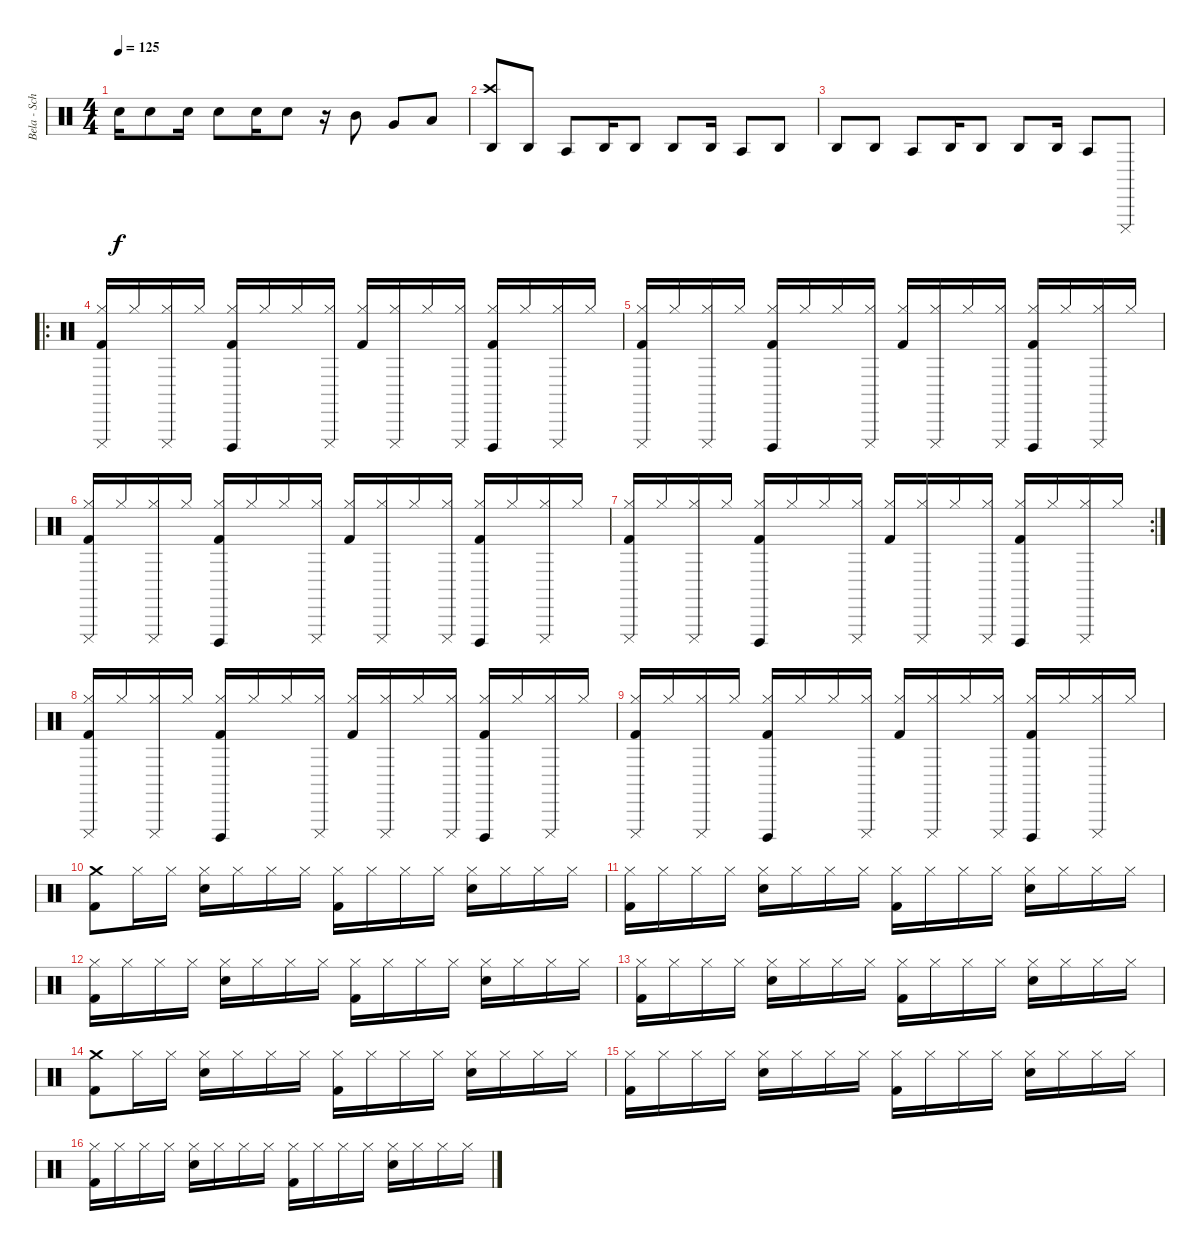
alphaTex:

\track ("Bela - Schlagzeug" "Bela - Sch") {instrument percussion}
\staff {score}
\articulation defaults
\ts (4 4)
\tempo 125
\clef neutral
\ks c "Electric Snare (hit)".16{dy f} "Electric Snare (hit)".8 "Electric Snare (hit)".16 "Electric Snare (hit)".8 "Electric Snare (hit)".16 "Electric Snare (hit)".8
r.16 "Mid Tom (hit)".8 "Very Low Tom (hit)".8 "Low Floor Tom (hit)".8 |
("Crash high (hit)" "Agogo high (hit)").8 "Agogo high (hit)".8 "Agogo tow (hit)".8 "Agogo high (hit)".16 "Agogo high (hit)".8 "Agogo high (hit)".8 "Agogo high (hit)".16 "Agogo tow (hit)".8 "Agogo high (hit)".8 |
"Agogo high (hit)".8 "Agogo high (hit)".8 "Agogo tow (hit)".8 "Agogo high (hit)".16 "Agogo high (hit)".8 "Agogo high (hit)".8 "Agogo high (hit)".16 "Agogo tow (hit)".8 "Cuica (mute)".8 |
\ro
("Hi-Hat (closed)" "Cuica (mute)" "Kick (hit) 2").16 "Hi-Hat (closed)".16 ("Hi-Hat (closed)" "Cuica (mute)").16 "Hi-Hat (closed)".16 ("Hi-Hat (closed)" "Cuica (open)" "Kick (hit) 2").16 "Hi-Hat (closed)".16 "Hi-Hat (closed)".16 ("Hi-Hat (closed)" "Cuica (mute)").16 ("Hi-Hat (closed)" "Kick (hit) 2").16 ("Hi-Hat (closed)" "Cuica (mute)").16 "Hi-Hat (closed)".16 ("Hi-Hat (closed)" "Cuica (mute)").16 ("Hi-Hat (closed)" "Cuica (open)" "Kick (hit) 2").16 "Hi-Hat (closed)".16 ("Hi-Hat (closed)" "Cuica (mute)").16 "Hi-Hat (closed)".16 |
("Hi-Hat (closed)" "Cuica (mute)" "Kick (hit) 2").16 "Hi-Hat (closed)".16 ("Hi-Hat (closed)" "Cuica (mute)").16 "Hi-Hat (closed)".16 ("Hi-Hat (closed)" "Cuica (open)" "Kick (hit) 2").16 "Hi-Hat (closed)".16 "Hi-Hat (closed)".16 ("Hi-Hat (closed)" "Cuica (mute)").16 ("Hi-Hat (closed)" "Kick (hit) 2").16 ("Hi-Hat (closed)" "Cuica (mute)").16 "Hi-Hat (closed)".16 ("Hi-Hat (closed)" "Cuica (mute)").16 ("Hi-Hat (closed)" "Cuica (open)" "Kick (hit) 2").16 "Hi-Hat (closed)".16 ("Hi-Hat (closed)" "Cuica (mute)").16 "Hi-Hat (closed)".16 |
("Hi-Hat (closed)" "Cuica (mute)" "Kick (hit) 2").16 "Hi-Hat (closed)".16 ("Hi-Hat (closed)" "Cuica (mute)").16 "Hi-Hat (closed)".16 ("Hi-Hat (closed)" "Cuica (open)" "Kick (hit) 2").16 "Hi-Hat (closed)".16 "Hi-Hat (closed)".16 ("Hi-Hat (closed)" "Cuica (mute)").16 ("Hi-Hat (closed)" "Kick (hit) 2").16 ("Hi-Hat (closed)" "Cuica (mute)").16 "Hi-Hat (closed)".16 ("Hi-Hat (closed)" "Cuica (mute)").16 ("Hi-Hat (closed)" "Cuica (open)" "Kick (hit) 2").16 "Hi-Hat (closed)".16 ("Hi-Hat (closed)" "Cuica (mute)").16 "Hi-Hat (closed)".16 |
\rc 2
("Hi-Hat (closed)" "Cuica (mute)" "Kick (hit) 2").16 "Hi-Hat (closed)".16 ("Hi-Hat (closed)" "Cuica (mute)").16 "Hi-Hat (closed)".16 ("Hi-Hat (closed)" "Cuica (open)" "Kick (hit) 2").16 "Hi-Hat (closed)".16 "Hi-Hat (closed)".16 ("Hi-Hat (closed)" "Cuica (mute)").16 ("Hi-Hat (closed)" "Kick (hit) 2").16 ("Hi-Hat (closed)" "Cuica (mute)").16 "Hi-Hat (closed)".16 ("Hi-Hat (closed)" "Cuica (mute)").16 ("Hi-Hat (closed)" "Cuica (open)" "Kick (hit) 2").16 "Hi-Hat (closed)".16 ("Hi-Hat (closed)" "Cuica (mute)").16 "Hi-Hat (closed)".16 |
("Hi-Hat (closed)" "Cuica (mute)" "Kick (hit) 2").16 "Hi-Hat (closed)".16 ("Hi-Hat (closed)" "Cuica (mute)").16 "Hi-Hat (closed)".16 ("Hi-Hat (closed)" "Cuica (open)" "Kick (hit) 2").16 "Hi-Hat (closed)".16 "Hi-Hat (closed)".16 ("Hi-Hat (closed)" "Cuica (mute)").16 ("Hi-Hat (closed)" "Kick (hit) 2").16 ("Hi-Hat (closed)" "Cuica (mute)").16 "Hi-Hat (closed)".16 ("Hi-Hat (closed)" "Cuica (mute)").16 ("Hi-Hat (closed)" "Cuica (open)" "Kick (hit) 2").16 "Hi-Hat (closed)".16 ("Hi-Hat (closed)" "Cuica (mute)").16 "Hi-Hat (closed)".16 |
("Hi-Hat (closed)" "Cuica (mute)" "Kick (hit) 2").16 "Hi-Hat (closed)".16 ("Hi-Hat (closed)" "Cuica (mute)").16 "Hi-Hat (closed)".16 ("Hi-Hat (closed)" "Cuica (open)" "Kick (hit) 2").16 "Hi-Hat (closed)".16 "Hi-Hat (closed)".16 ("Hi-Hat (closed)" "Cuica (mute)").16 ("Hi-Hat (closed)" "Kick (hit) 2").16 ("Hi-Hat (closed)" "Cuica (mute)").16 "Hi-Hat (closed)".16 ("Hi-Hat (closed)" "Cuica (mute)").16 ("Hi-Hat (closed)" "Cuica (open)" "Kick (hit) 2").16 "Hi-Hat (closed)".16 ("Hi-Hat (closed)" "Cuica (mute)").16 "Hi-Hat (closed)".16 |
("Crash medium (hit)" "Kick (hit) 2").8 "Hi-Hat (closed)".16 "Hi-Hat (closed)".16 ("Hi-Hat (closed)" "Electric Snare (hit)").16 "Hi-Hat (closed)".16 "Hi-Hat (closed)".16 "Hi-Hat (closed)".16 ("Hi-Hat (closed)" "Kick (hit) 2").16 "Hi-Hat (closed)".16 "Hi-Hat (closed)".16 "Hi-Hat (closed)".16 ("Hi-Hat (closed)" "Electric Snare (hit)").16 "Hi-Hat (closed)".16 "Hi-Hat (closed)".16 "Hi-Hat (closed)".16 |
("Hi-Hat (closed)" "Kick (hit) 2").16 "Hi-Hat (closed)".16 "Hi-Hat (closed)".16 "Hi-Hat (closed)".16 ("Hi-Hat (closed)" "Electric Snare (hit)").16 "Hi-Hat (closed)".16 "Hi-Hat (closed)".16 "Hi-Hat (closed)".16 ("Hi-Hat (closed)" "Kick (hit) 2").16 "Hi-Hat (closed)".16 "Hi-Hat (closed)".16 "Hi-Hat (closed)".16 ("Hi-Hat (closed)" "Electric Snare (hit)").16 "Hi-Hat (closed)".16 "Hi-Hat (closed)".16 "Hi-Hat (closed)".16 |
("Hi-Hat (closed)" "Kick (hit) 2").16 "Hi-Hat (closed)".16 "Hi-Hat (closed)".16 "Hi-Hat (closed)".16 ("Hi-Hat (closed)" "Electric Snare (hit)").16 "Hi-Hat (closed)".16 "Hi-Hat (closed)".16 "Hi-Hat (closed)".16 ("Hi-Hat (closed)" "Kick (hit) 2").16 "Hi-Hat (closed)".16 "Hi-Hat (closed)".16 "Hi-Hat (closed)".16 ("Hi-Hat (closed)" "Electric Snare (hit)").16 "Hi-Hat (closed)".16 "Hi-Hat (closed)".16 "Hi-Hat (closed)".16 |
("Hi-Hat (closed)" "Kick (hit) 2").16 "Hi-Hat (closed)".16 "Hi-Hat (closed)".16 "Hi-Hat (closed)".16 ("Hi-Hat (closed)" "Electric Snare (hit)").16 "Hi-Hat (closed)".16 "Hi-Hat (closed)".16 "Hi-Hat (closed)".16 ("Hi-Hat (closed)" "Kick (hit) 2").16 "Hi-Hat (closed)".16 "Hi-Hat (closed)".16 "Hi-Hat (closed)".16 ("Hi-Hat (closed)" "Electric Snare (hit)").16 "Hi-Hat (closed)".16 "Hi-Hat (closed)".16 "Hi-Hat (closed)".16 |
("Crash medium (hit)" "Kick (hit) 2").8 "Hi-Hat (closed)".16 "Hi-Hat (closed)".16 ("Hi-Hat (closed)" "Electric Snare (hit)").16 "Hi-Hat (closed)".16 "Hi-Hat (closed)".16 "Hi-Hat (closed)".16 ("Hi-Hat (closed)" "Kick (hit) 2").16 "Hi-Hat (closed)".16 "Hi-Hat (closed)".16 "Hi-Hat (closed)".16 ("Hi-Hat (closed)" "Electric Snare (hit)").16 "Hi-Hat (closed)".16 "Hi-Hat (closed)".16 "Hi-Hat (closed)".16 |
("Hi-Hat (closed)" "Kick (hit) 2").16 "Hi-Hat (closed)".16 "Hi-Hat (closed)".16 "Hi-Hat (closed)".16 ("Hi-Hat (closed)" "Electric Snare (hit)").16 "Hi-Hat (closed)".16 "Hi-Hat (closed)".16 "Hi-Hat (closed)".16 ("Hi-Hat (closed)" "Kick (hit) 2").16 "Hi-Hat (closed)".16 "Hi-Hat (closed)".16 "Hi-Hat (closed)".16 ("Hi-Hat (closed)" "Electric Snare (hit)").16 "Hi-Hat (closed)".16 "Hi-Hat (closed)".16 "Hi-Hat (closed)".16 |
("Hi-Hat (closed)" "Kick (hit) 2").16 "Hi-Hat (closed)".16 "Hi-Hat (closed)".16 "Hi-Hat (closed)".16 ("Hi-Hat (closed)" "Electric Snare (hit)").16 "Hi-Hat (closed)".16 "Hi-Hat (closed)".16 "Hi-Hat (closed)".16 ("Hi-Hat (closed)" "Kick (hit) 2").16 "Hi-Hat (closed)".16 "Hi-Hat (closed)".16 "Hi-Hat (closed)".16 ("Hi-Hat (closed)" "Electric Snare (hit)").16 "Hi-Hat (closed)".16 "Hi-Hat (closed)".16 "Hi-Hat (closed)".16
